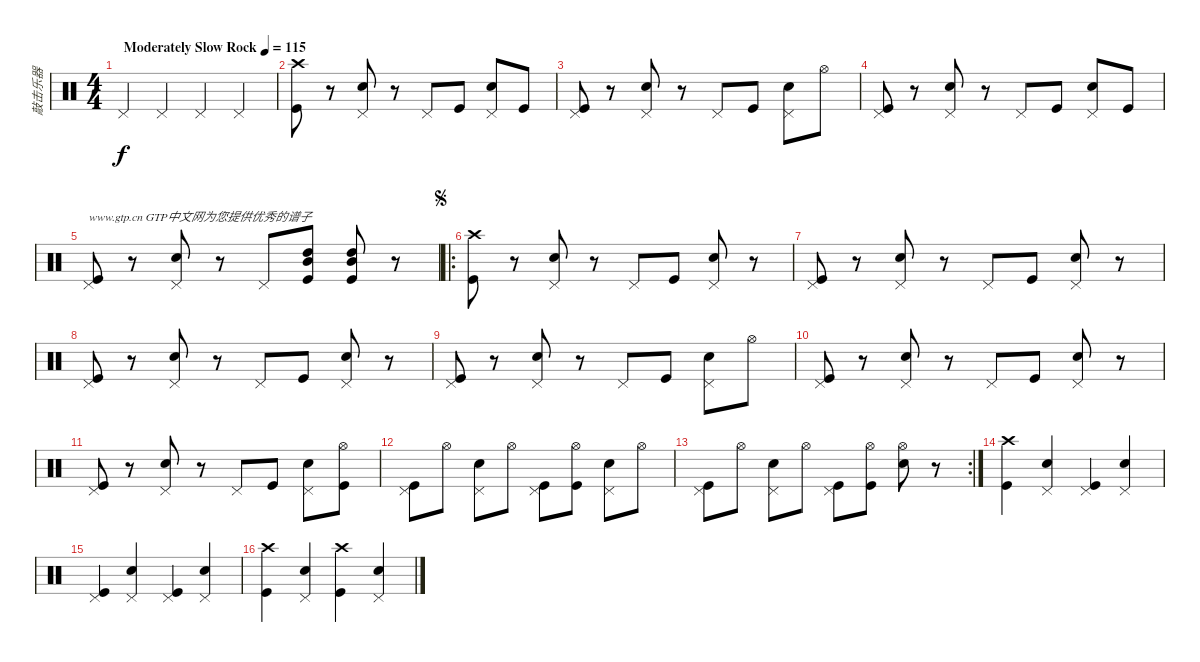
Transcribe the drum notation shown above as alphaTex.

\track ("敲击乐器" "敲击乐器") {instrument percussion}
\staff {score}
\articulation defaults
\ts (4 4)
\tempo (115 "Moderately Slow Rock")
\clef neutral
\ks c "Pedal Hi-Hat (hit)".4{dy f} "Pedal Hi-Hat (hit)".4 "Pedal Hi-Hat (hit)".4 "Pedal Hi-Hat (hit)".4
|
("Crash high (hit)" "Kick (hit)").8 r.8 ("Pedal Hi-Hat (hit)" "Snare (hit) 2").8 r.8 "Pedal Hi-Hat (hit)".8 "Kick (hit)".8 ("Pedal Hi-Hat (hit)" "Snare (hit) 2").8 "Kick (hit)".8 |
("Pedal Hi-Hat (hit)" "Kick (hit)").8 r.8 ("Pedal Hi-Hat (hit)" "Snare (hit) 2").8 r.8 "Pedal Hi-Hat (hit)".8 "Kick (hit)".8 ("Pedal Hi-Hat (hit)" "Snare (hit) 2").8 "Hi-Hat (open)".8 |
("Pedal Hi-Hat (hit)" "Kick (hit)").8 r.8 ("Pedal Hi-Hat (hit)" "Snare (hit) 2").8 r.8 "Pedal Hi-Hat (hit)".8 "Kick (hit)".8 ("Pedal Hi-Hat (hit)" "Snare (hit) 2").8 "Kick (hit)".8 |
("Pedal Hi-Hat (hit)" "Kick (hit)").8{txt "www.gtp.cn GTP中文网为您提供优秀的谱子"} r.8 ("Pedal Hi-Hat (hit)" "Snare (hit) 2").8 r.8 "Pedal Hi-Hat (hit)".8 ("Mid Tom (hit)" "High Tom (hit)" "Kick (hit)").8 ("Mid Tom (hit)" "High Tom (hit)" "Kick (hit)").8 r.8 |
\ro
\jump segno
("Crash high (hit)" "Kick (hit)").8 r.8 ("Pedal Hi-Hat (hit)" "Snare (hit) 2").8 r.8 "Pedal Hi-Hat (hit)".8 "Kick (hit)".8 ("Pedal Hi-Hat (hit)" "Snare (hit) 2").8 r.8 |
("Pedal Hi-Hat (hit)" "Kick (hit)").8 r.8 ("Pedal Hi-Hat (hit)" "Snare (hit) 2").8 r.8 "Pedal Hi-Hat (hit)".8 "Kick (hit)".8 ("Pedal Hi-Hat (hit)" "Snare (hit) 2").8 r.8 |
("Pedal Hi-Hat (hit)" "Kick (hit)").8 r.8 ("Pedal Hi-Hat (hit)" "Snare (hit) 2").8 r.8 "Pedal Hi-Hat (hit)".8 "Kick (hit)".8 ("Pedal Hi-Hat (hit)" "Snare (hit) 2").8 r.8 |
("Pedal Hi-Hat (hit)" "Kick (hit)").8 r.8 ("Pedal Hi-Hat (hit)" "Snare (hit) 2").8 r.8 "Pedal Hi-Hat (hit)".8 "Kick (hit)".8 ("Pedal Hi-Hat (hit)" "Snare (hit) 2").8 "Hi-Hat (open)".8 |
("Pedal Hi-Hat (hit)" "Kick (hit)").8 r.8 ("Pedal Hi-Hat (hit)" "Snare (hit) 2").8 r.8 "Pedal Hi-Hat (hit)".8 "Kick (hit)".8 ("Pedal Hi-Hat (hit)" "Snare (hit) 2").8 r.8 |
("Pedal Hi-Hat (hit)" "Kick (hit)").8 r.8 ("Pedal Hi-Hat (hit)" "Snare (hit) 2").8 r.8 "Pedal Hi-Hat (hit)".8 "Kick (hit)".8 ("Pedal Hi-Hat (hit)" "Snare (hit) 2").8 ("Hi-Hat (open)" "Kick (hit)").8 |
("Pedal Hi-Hat (hit)" "Kick (hit)").8 "Hi-Hat (open)".8 ("Pedal Hi-Hat (hit)" "Snare (hit) 2").8 "Hi-Hat (open)".8 ("Pedal Hi-Hat (hit)" "Kick (hit)").8 ("Hi-Hat (open)" "Kick (hit)").8 ("Pedal Hi-Hat (hit)" "Snare (hit) 2").8 "Hi-Hat (open)".8 |
\rc 2
("Pedal Hi-Hat (hit)" "Kick (hit)").8 "Hi-Hat (open)".8 ("Pedal Hi-Hat (hit)" "Snare (hit) 2").8 "Hi-Hat (open)".8 ("Pedal Hi-Hat (hit)" "Kick (hit)").8 ("Hi-Hat (open)" "Kick (hit)").8 ("Hi-Hat (open)" "Snare (hit) 2").8 r.8 |
("Crash high (hit)" "Kick (hit)").4 ("Pedal Hi-Hat (hit)" "Snare (hit) 2").4 ("Pedal Hi-Hat (hit)" "Kick (hit)").4 ("Pedal Hi-Hat (hit)" "Snare (hit) 2").4 |
("Pedal Hi-Hat (hit)" "Kick (hit)").4 ("Pedal Hi-Hat (hit)" "Snare (hit) 2").4 ("Pedal Hi-Hat (hit)" "Kick (hit)").4 ("Pedal Hi-Hat (hit)" "Snare (hit) 2").4 |
("Crash high (hit)" "Kick (hit)").4 ("Pedal Hi-Hat (hit)" "Snare (hit) 2").4 ("Crash high (hit)" "Kick (hit)").4 ("Pedal Hi-Hat (hit)" "Snare (hit) 2").4
